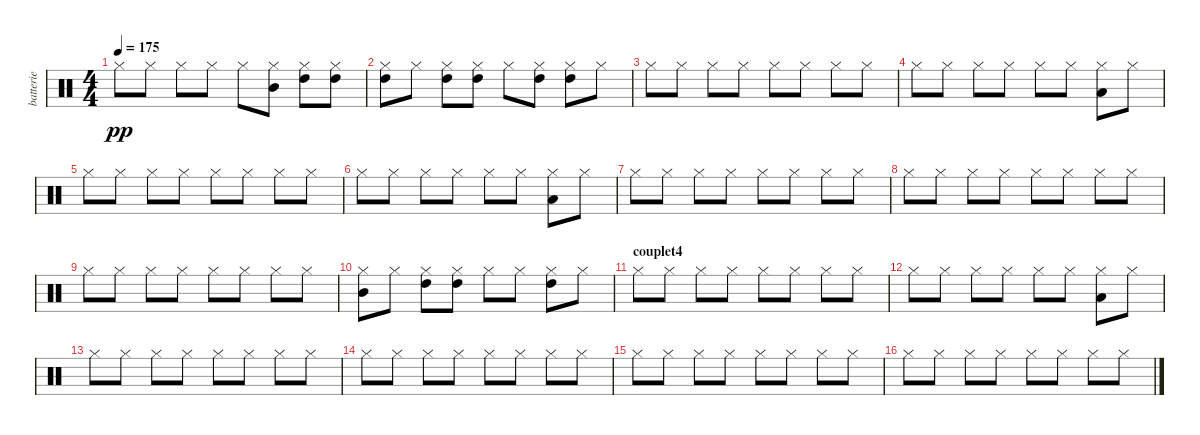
\track ("batterie" "batterie") {instrument percussion}
\staff {score}
\articulation defaults
\ts (4 4)
\tempo 175
\clef neutral
\ks c "Hi-Hat (closed)".8{dy pp} "Hi-Hat (closed)".8 "Hi-Hat (closed)".8 "Hi-Hat (closed)".8 "Hi-Hat (closed)".8
("Mid Tom (hit)" "Hi-Hat (closed)").8 ("High Tom (hit)" "Hi-Hat (closed)").8 ("High Tom (hit)" "Hi-Hat (closed)").8 |
("High Tom (hit)" "Hi-Hat (closed)").8 "Hi-Hat (closed)".8 ("High Tom (hit)" "Hi-Hat (closed)").8 ("High Tom (hit)" "Hi-Hat (closed)").8 "Hi-Hat (closed)".8 ("High Tom (hit)" "Hi-Hat (closed)").8 ("High Tom (hit)" "Hi-Hat (closed)").8 "Hi-Hat (closed)".8 |
"Hi-Hat (closed)".8 "Hi-Hat (closed)".8 "Hi-Hat (closed)".8 "Hi-Hat (closed)".8 "Hi-Hat (closed)".8 "Hi-Hat (closed)".8 "Hi-Hat (closed)".8 "Hi-Hat (closed)".8 |
"Hi-Hat (closed)".8 "Hi-Hat (closed)".8 "Hi-Hat (closed)".8 "Hi-Hat (closed)".8 "Hi-Hat (closed)".8 "Hi-Hat (closed)".8 ("Low Floor Tom (hit)" "Hi-Hat (closed)").8 "Hi-Hat (closed)".8 |
"Hi-Hat (closed)".8 "Hi-Hat (closed)".8 "Hi-Hat (closed)".8 "Hi-Hat (closed)".8 "Hi-Hat (closed)".8 "Hi-Hat (closed)".8 "Hi-Hat (closed)".8 "Hi-Hat (closed)".8 |
"Hi-Hat (closed)".8 "Hi-Hat (closed)".8 "Hi-Hat (closed)".8 "Hi-Hat (closed)".8 "Hi-Hat (closed)".8 "Hi-Hat (closed)".8 ("Low Floor Tom (hit)" "Hi-Hat (closed)").8 "Hi-Hat (closed)".8 |
"Hi-Hat (closed)".8 "Hi-Hat (closed)".8 "Hi-Hat (closed)".8 "Hi-Hat (closed)".8 "Hi-Hat (closed)".8 "Hi-Hat (closed)".8 "Hi-Hat (closed)".8 "Hi-Hat (closed)".8 |
"Hi-Hat (closed)".8 "Hi-Hat (closed)".8 "Hi-Hat (closed)".8 "Hi-Hat (closed)".8 "Hi-Hat (closed)".8 "Hi-Hat (closed)".8 "Hi-Hat (closed)".8 "Hi-Hat (closed)".8 |
"Hi-Hat (closed)".8 "Hi-Hat (closed)".8 "Hi-Hat (closed)".8 "Hi-Hat (closed)".8 "Hi-Hat (closed)".8 "Hi-Hat (closed)".8 "Hi-Hat (closed)".8 "Hi-Hat (closed)".8 |
("Mid Tom (hit)" "Hi-Hat (closed)").8 "Hi-Hat (closed)".8 ("High Tom (hit)" "Hi-Hat (closed)").8 ("High Tom (hit)" "Hi-Hat (closed)").8 "Hi-Hat (closed)".8 "Hi-Hat (closed)".8 ("High Tom (hit)" "Hi-Hat (closed)").8 "Hi-Hat (closed)".8 |
\section ("" "couplet4")
"Hi-Hat (closed)".8 "Hi-Hat (closed)".8 "Hi-Hat (closed)".8 "Hi-Hat (closed)".8 "Hi-Hat (closed)".8 "Hi-Hat (closed)".8 "Hi-Hat (closed)".8 "Hi-Hat (closed)".8 |
"Hi-Hat (closed)".8 "Hi-Hat (closed)".8 "Hi-Hat (closed)".8 "Hi-Hat (closed)".8 "Hi-Hat (closed)".8 "Hi-Hat (closed)".8 ("Low Floor Tom (hit)" "Hi-Hat (closed)").8 "Hi-Hat (closed)".8 |
"Hi-Hat (closed)".8 "Hi-Hat (closed)".8 "Hi-Hat (closed)".8 "Hi-Hat (closed)".8 "Hi-Hat (closed)".8 "Hi-Hat (closed)".8 "Hi-Hat (closed)".8 "Hi-Hat (closed)".8 |
"Hi-Hat (closed)".8 "Hi-Hat (closed)".8 "Hi-Hat (closed)".8 "Hi-Hat (closed)".8 "Hi-Hat (closed)".8 "Hi-Hat (closed)".8 "Hi-Hat (closed)".8 "Hi-Hat (closed)".8 |
"Hi-Hat (closed)".8 "Hi-Hat (closed)".8 "Hi-Hat (closed)".8 "Hi-Hat (closed)".8 "Hi-Hat (closed)".8 "Hi-Hat (closed)".8 "Hi-Hat (closed)".8 "Hi-Hat (closed)".8 |
"Hi-Hat (closed)".8 "Hi-Hat (closed)".8 "Hi-Hat (closed)".8 "Hi-Hat (closed)".8 "Hi-Hat (closed)".8 "Hi-Hat (closed)".8 "Hi-Hat (closed)".8 "Hi-Hat (closed)".8
